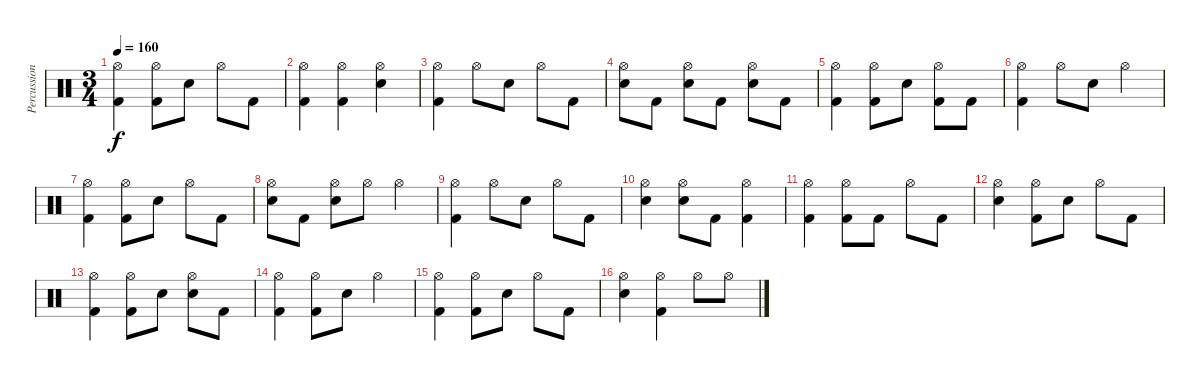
\track ("Percussion" "Percussion") {instrument percussion}
\staff {score}
\articulation defaults
\ts (3 4)
\tempo 160
\clef neutral
\ks c
("Hi-Hat (open)" "Kick (hit) 2").4{dy f} ("Hi-Hat (open)" "Kick (hit) 2").8 "Snare (hit) 2".8 "Hi-Hat (open)".8 "Kick (hit) 2".8 |
("Hi-Hat (open)" "Kick (hit) 2").4 ("Hi-Hat (open)" "Kick (hit) 2").4 ("Hi-Hat (open)" "Snare (hit) 2").4 |
("Hi-Hat (open)" "Kick (hit) 2").4 "Hi-Hat (open)".8 "Snare (hit) 2".8 "Hi-Hat (open)".8 "Kick (hit) 2".8 |
("Hi-Hat (open)" "Snare (hit) 2").8 "Kick (hit) 2".8 ("Hi-Hat (open)" "Snare (hit) 2").8 "Kick (hit) 2".8 ("Hi-Hat (open)" "Snare (hit) 2").8 "Kick (hit) 2".8 |
("Hi-Hat (open)" "Kick (hit) 2").4 ("Hi-Hat (open)" "Kick (hit) 2").8 "Snare (hit) 2".8 ("Hi-Hat (open)" "Kick (hit) 2").8 "Kick (hit) 2".8 |
("Hi-Hat (open)" "Kick (hit) 2").4 "Hi-Hat (open)".8 "Snare (hit) 2".8 "Hi-Hat (open)".4 |
("Hi-Hat (open)" "Kick (hit) 2").4 ("Hi-Hat (open)" "Kick (hit) 2").8 "Snare (hit) 2".8 "Hi-Hat (open)".8 "Kick (hit) 2".8 |
("Hi-Hat (open)" "Snare (hit) 2").8 "Kick (hit) 2".8 ("Hi-Hat (open)" "Snare (hit) 2").8 "Hi-Hat (open)".8 "Hi-Hat (open)".4 |
("Hi-Hat (open)" "Kick (hit) 2").4 "Hi-Hat (open)".8 "Snare (hit) 2".8 "Hi-Hat (open)".8 "Kick (hit) 2".8 |
("Hi-Hat (open)" "Snare (hit) 2").4 ("Hi-Hat (open)" "Snare (hit) 2").8 "Kick (hit) 2".8 ("Hi-Hat (open)" "Kick (hit) 2").4 |
("Hi-Hat (open)" "Kick (hit) 2").4 ("Hi-Hat (open)" "Kick (hit) 2").8 "Kick (hit) 2".8 "Hi-Hat (open)".8 "Kick (hit) 2".8 |
("Hi-Hat (open)" "Snare (hit) 2").4 ("Hi-Hat (open)" "Kick (hit) 2").8 "Snare (hit) 2".8 "Hi-Hat (open)".8 "Kick (hit) 2".8 |
("Hi-Hat (open)" "Kick (hit) 2").4 ("Hi-Hat (open)" "Kick (hit) 2").8 "Snare (hit) 2".8 ("Hi-Hat (open)" "Snare (hit) 2").8 "Kick (hit) 2".8 |
("Hi-Hat (open)" "Kick (hit) 2").4 ("Hi-Hat (open)" "Kick (hit) 2").8 "Snare (hit) 2".8 "Hi-Hat (open)".4 |
("Hi-Hat (open)" "Kick (hit) 2").4 ("Hi-Hat (open)" "Kick (hit) 2").8 "Snare (hit) 2".8 "Hi-Hat (open)".8 "Kick (hit) 2".8 |
("Hi-Hat (open)" "Snare (hit) 2").4 ("Hi-Hat (open)" "Kick (hit) 2").4 "Hi-Hat (open)".8 "Hi-Hat (open)".8
